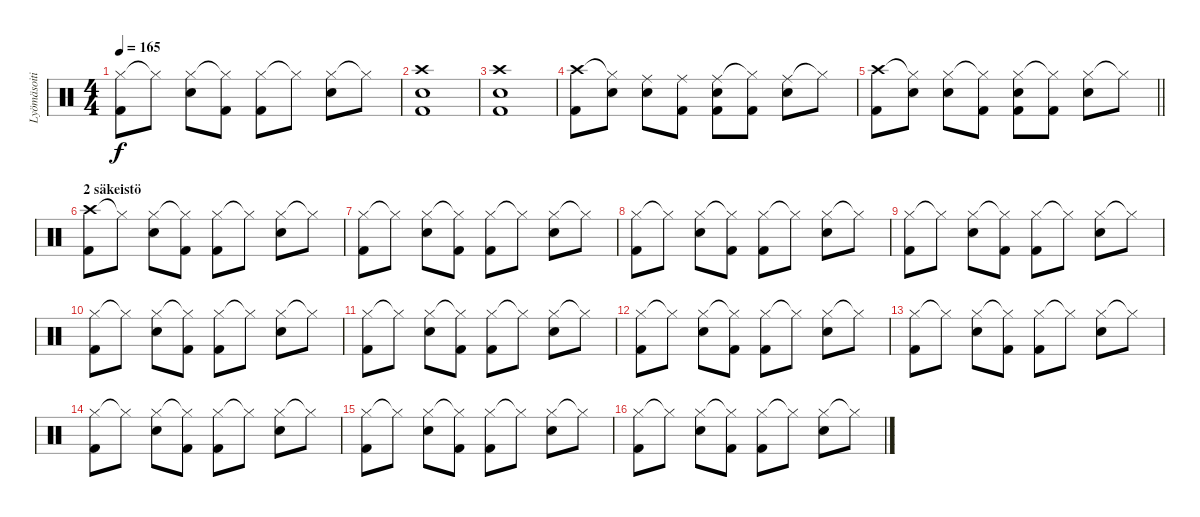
\track ("Lyömäsoitin" "Lyömäsoiti") {instrument percussion}
\staff {score}
\articulation defaults
\ts (4 4)
\tempo 165
\clef neutral
\ks c
("Hi-Hat (closed)" "Kick (hit) 2").8{dy f} "Hi-Hat (closed)"{t}.8 ("Hi-Hat (closed)" "Snare (hit) 2").8 ("Hi-Hat (closed)"{t} "Kick (hit) 2").8 ("Hi-Hat (closed)" "Kick (hit) 2").8 "Hi-Hat (closed)"{t}.8 ("Hi-Hat (closed)" "Snare (hit) 2").8 "Hi-Hat (closed)"{t}.8 |
("Crash high (hit)" "Snare (hit) 2" "Kick (hit) 2").1 |
("Crash high (hit)" "Snare (hit) 2" "Kick (hit) 2").1 |
("Crash high (hit)" "Kick (hit) 2").8 ("Hi-Hat (closed)"{t} "Snare (hit) 2").8 ("Ride (middle)" "Snare (hit) 2").8 ("Ride (middle)" "Kick (hit) 2").8 ("Ride (middle)" "Snare (hit) 2" "Kick (hit) 2").8 ("Hi-Hat (closed)"{t} "Kick (hit) 2").8 ("Ride (middle)" "Snare (hit) 2").8 "Hi-Hat (closed)"{t}.8 |
\barLineRight lightlight
("Crash high (hit)" "Kick (hit) 2").8 ("Hi-Hat (closed)"{t} "Snare (hit) 2").8 ("Hi-Hat (closed)" "Snare (hit) 2").8 ("Hi-Hat (closed)"{t} "Kick (hit) 2").8 ("Hi-Hat (closed)" "Snare (hit) 2" "Kick (hit) 2").8 ("Hi-Hat (closed)"{t} "Kick (hit) 2").8 ("Hi-Hat (closed)" "Snare (hit) 2").8 "Hi-Hat (closed)"{t}.8 |
\section ("" "2 säkeistö")
("Crash high (hit)" "Kick (hit) 2").8 "Hi-Hat (closed)"{t}.8 ("Hi-Hat (closed)" "Snare (hit) 2").8 ("Hi-Hat (closed)"{t} "Kick (hit) 2").8 ("Hi-Hat (closed)" "Kick (hit) 2").8 "Hi-Hat (closed)"{t}.8 ("Hi-Hat (closed)" "Snare (hit) 2").8 "Hi-Hat (closed)"{t}.8 |
("Hi-Hat (closed)" "Kick (hit) 2").8 "Hi-Hat (closed)"{t}.8 ("Hi-Hat (closed)" "Snare (hit) 2").8 ("Hi-Hat (closed)"{t} "Kick (hit) 2").8 ("Hi-Hat (closed)" "Kick (hit) 2").8 "Hi-Hat (closed)"{t}.8 ("Hi-Hat (closed)" "Snare (hit) 2").8 "Hi-Hat (closed)"{t}.8 |
("Hi-Hat (closed)" "Kick (hit) 2").8 "Hi-Hat (closed)"{t}.8 ("Hi-Hat (closed)" "Snare (hit) 2").8 ("Hi-Hat (closed)"{t} "Kick (hit) 2").8 ("Hi-Hat (closed)" "Kick (hit) 2").8 "Hi-Hat (closed)"{t}.8 ("Hi-Hat (closed)" "Snare (hit) 2").8 "Hi-Hat (closed)"{t}.8 |
("Hi-Hat (closed)" "Kick (hit) 2").8 "Hi-Hat (closed)"{t}.8 ("Hi-Hat (closed)" "Snare (hit) 2").8 ("Hi-Hat (closed)"{t} "Kick (hit) 2").8 ("Hi-Hat (closed)" "Kick (hit) 2").8 "Hi-Hat (closed)"{t}.8 ("Hi-Hat (closed)" "Snare (hit) 2").8 "Hi-Hat (closed)"{t}.8 |
("Hi-Hat (closed)" "Kick (hit) 2").8 "Hi-Hat (closed)"{t}.8 ("Hi-Hat (closed)" "Snare (hit) 2").8 ("Hi-Hat (closed)"{t} "Kick (hit) 2").8 ("Hi-Hat (closed)" "Kick (hit) 2").8 "Hi-Hat (closed)"{t}.8 ("Hi-Hat (closed)" "Snare (hit) 2").8 "Hi-Hat (closed)"{t}.8 |
("Hi-Hat (closed)" "Kick (hit) 2").8 "Hi-Hat (closed)"{t}.8 ("Hi-Hat (closed)" "Snare (hit) 2").8 ("Hi-Hat (closed)"{t} "Kick (hit) 2").8 ("Hi-Hat (closed)" "Kick (hit) 2").8 "Hi-Hat (closed)"{t}.8 ("Hi-Hat (closed)" "Snare (hit) 2").8 "Hi-Hat (closed)"{t}.8 |
("Hi-Hat (closed)" "Kick (hit) 2").8 "Hi-Hat (closed)"{t}.8 ("Hi-Hat (closed)" "Snare (hit) 2").8 ("Hi-Hat (closed)"{t} "Kick (hit) 2").8 ("Hi-Hat (closed)" "Kick (hit) 2").8 "Hi-Hat (closed)"{t}.8 ("Hi-Hat (closed)" "Snare (hit) 2").8 "Hi-Hat (closed)"{t}.8 |
("Hi-Hat (closed)" "Kick (hit) 2").8 "Hi-Hat (closed)"{t}.8 ("Hi-Hat (closed)" "Snare (hit) 2").8 ("Hi-Hat (closed)"{t} "Kick (hit) 2").8 ("Hi-Hat (closed)" "Kick (hit) 2").8 "Hi-Hat (closed)"{t}.8 ("Hi-Hat (closed)" "Snare (hit) 2").8 "Hi-Hat (closed)"{t}.8 |
("Hi-Hat (closed)" "Kick (hit) 2").8 "Hi-Hat (closed)"{t}.8 ("Hi-Hat (closed)" "Snare (hit) 2").8 ("Hi-Hat (closed)"{t} "Kick (hit) 2").8 ("Hi-Hat (closed)" "Kick (hit) 2").8 "Hi-Hat (closed)"{t}.8 ("Hi-Hat (closed)" "Snare (hit) 2").8 "Hi-Hat (closed)"{t}.8 |
("Hi-Hat (closed)" "Kick (hit) 2").8 "Hi-Hat (closed)"{t}.8 ("Hi-Hat (closed)" "Snare (hit) 2").8 ("Hi-Hat (closed)"{t} "Kick (hit) 2").8 ("Hi-Hat (closed)" "Kick (hit) 2").8 "Hi-Hat (closed)"{t}.8 ("Hi-Hat (closed)" "Snare (hit) 2").8 "Hi-Hat (closed)"{t}.8 |
("Hi-Hat (closed)" "Kick (hit) 2").8 "Hi-Hat (closed)"{t}.8 ("Hi-Hat (closed)" "Snare (hit) 2").8 ("Hi-Hat (closed)"{t} "Kick (hit) 2").8 ("Hi-Hat (closed)" "Kick (hit) 2").8 "Hi-Hat (closed)"{t}.8 ("Hi-Hat (closed)" "Snare (hit) 2").8 "Hi-Hat (closed)"{t}.8
